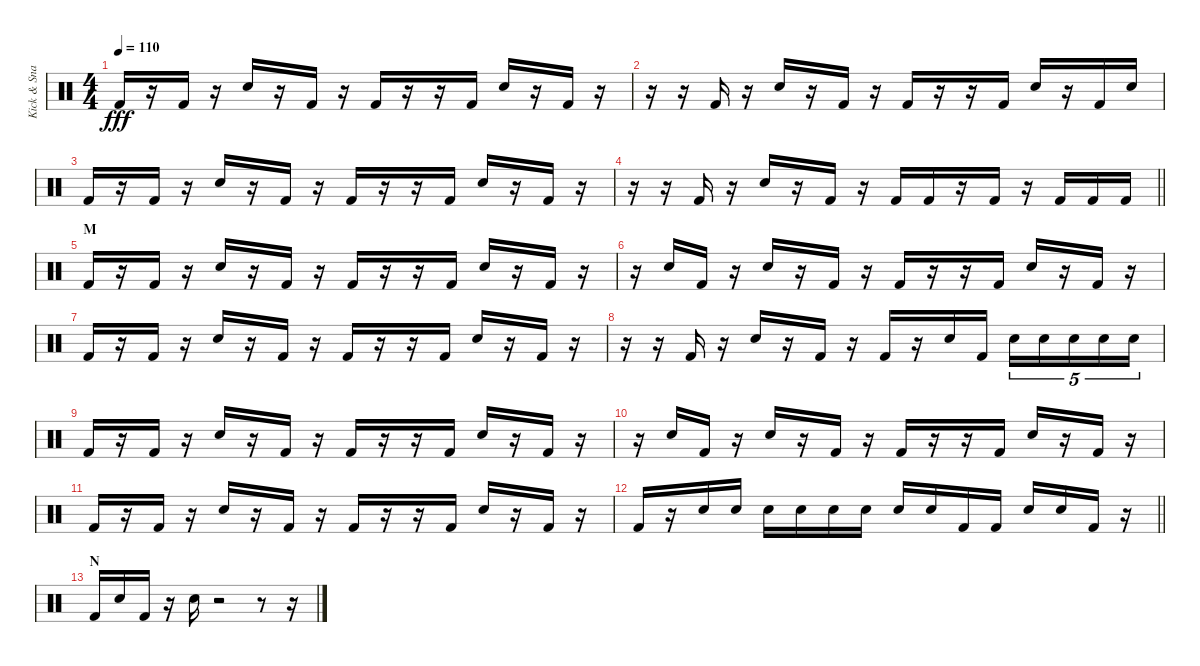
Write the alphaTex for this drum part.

\track ("Kick & Snare" "Kick & Sna") {instrument percussion}
\staff {score}
\articulation defaults
\ts (4 4)
\tempo 110
\clef neutral
\ks c "Kick (hit) 2".16{dy fff}
r.16 "Kick (hit) 2".16 r.16 "Snare (hit) 2".16 r.16 "Kick (hit) 2".16 r.16 "Kick (hit) 2".16 r.16 r.16 "Kick (hit) 2".16 "Snare (hit) 2".16 r.16 "Kick (hit) 2".16 r.16 |
r.16 r.16 "Kick (hit) 2".16 r.16 "Snare (hit) 2".16 r.16 "Kick (hit) 2".16 r.16 "Kick (hit) 2".16 r.16 r.16 "Kick (hit) 2".16 "Snare (hit) 2".16 r.16 "Kick (hit) 2".16 "Snare (hit) 2".16 |
"Kick (hit) 2".16 r.16 "Kick (hit) 2".16 r.16 "Snare (hit) 2".16 r.16 "Kick (hit) 2".16 r.16 "Kick (hit) 2".16 r.16 r.16 "Kick (hit) 2".16 "Snare (hit) 2".16 r.16 "Kick (hit) 2".16 r.16 |
\barLineRight lightlight
r.16 r.16 "Kick (hit) 2".16 r.16 "Snare (hit) 2".16 r.16 "Kick (hit) 2".16 r.16 "Kick (hit) 2".16 "Kick (hit) 2".16 r.16 "Kick (hit) 2".16 r.16 "Kick (hit) 2".16 "Kick (hit) 2".16 "Kick (hit) 2".16 |
\section ("" "M")
"Kick (hit) 2".16 r.16 "Kick (hit) 2".16 r.16 "Snare (hit) 2".16 r.16 "Kick (hit) 2".16 r.16 "Kick (hit) 2".16 r.16 r.16 "Kick (hit) 2".16 "Snare (hit) 2".16 r.16 "Kick (hit) 2".16 r.16 |
r.16 "Snare (hit) 2".16 "Kick (hit) 2".16 r.16 "Snare (hit) 2".16 r.16 "Kick (hit) 2".16 r.16 "Kick (hit) 2".16 r.16 r.16 "Kick (hit) 2".16 "Snare (hit) 2".16 r.16 "Kick (hit) 2".16 r.16 |
"Kick (hit) 2".16 r.16 "Kick (hit) 2".16 r.16 "Snare (hit) 2".16 r.16 "Kick (hit) 2".16 r.16 "Kick (hit) 2".16 r.16 r.16 "Kick (hit) 2".16 "Snare (hit) 2".16 r.16 "Kick (hit) 2".16 r.16 |
r.16 r.16 "Kick (hit) 2".16 r.16 "Snare (hit) 2".16 r.16 "Kick (hit) 2".16 r.16 "Kick (hit) 2".16 r.16 "Snare (hit) 2".16 "Kick (hit) 2".16 "Snare (hit) 2".16{tu (5 4)} "Snare (hit) 2".16{tu (5 4)} "Snare (hit) 2".16{tu (5 4)} "Snare (hit) 2".16{tu (5 4)} "Snare (hit) 2".16{tu (5 4)} |
"Kick (hit) 2".16 r.16 "Kick (hit) 2".16 r.16 "Snare (hit) 2".16 r.16 "Kick (hit) 2".16 r.16 "Kick (hit) 2".16 r.16 r.16 "Kick (hit) 2".16 "Snare (hit) 2".16 r.16 "Kick (hit) 2".16 r.16 |
r.16 "Snare (hit) 2".16 "Kick (hit) 2".16 r.16 "Snare (hit) 2".16 r.16 "Kick (hit) 2".16 r.16 "Kick (hit) 2".16 r.16 r.16 "Kick (hit) 2".16 "Snare (hit) 2".16 r.16 "Kick (hit) 2".16 r.16 |
"Kick (hit) 2".16 r.16 "Kick (hit) 2".16 r.16 "Snare (hit) 2".16 r.16 "Kick (hit) 2".16 r.16 "Kick (hit) 2".16 r.16 r.16 "Kick (hit) 2".16 "Snare (hit) 2".16 r.16 "Kick (hit) 2".16 r.16 |
\barLineRight lightlight "Kick (hit) 2".16
r.16 "Snare (hit) 2".16 "Snare (hit) 2".16 "Snare (hit) 2".16 "Snare (hit) 2".16 "Snare (hit) 2".16 "Snare (hit) 2".16 "Snare (hit) 2".16 "Snare (hit) 2".16 "Kick (hit) 2".16 "Kick (hit) 2".16 "Snare (hit) 2".16 "Snare (hit) 2".16 "Kick (hit) 2".16 r.16 |
\section ("" "N")
"Kick (hit) 2".16 "Snare (hit) 2".16 "Kick (hit) 2".16 r.16 "Snare (hit) 2".16 r.2 r.8 r.16
